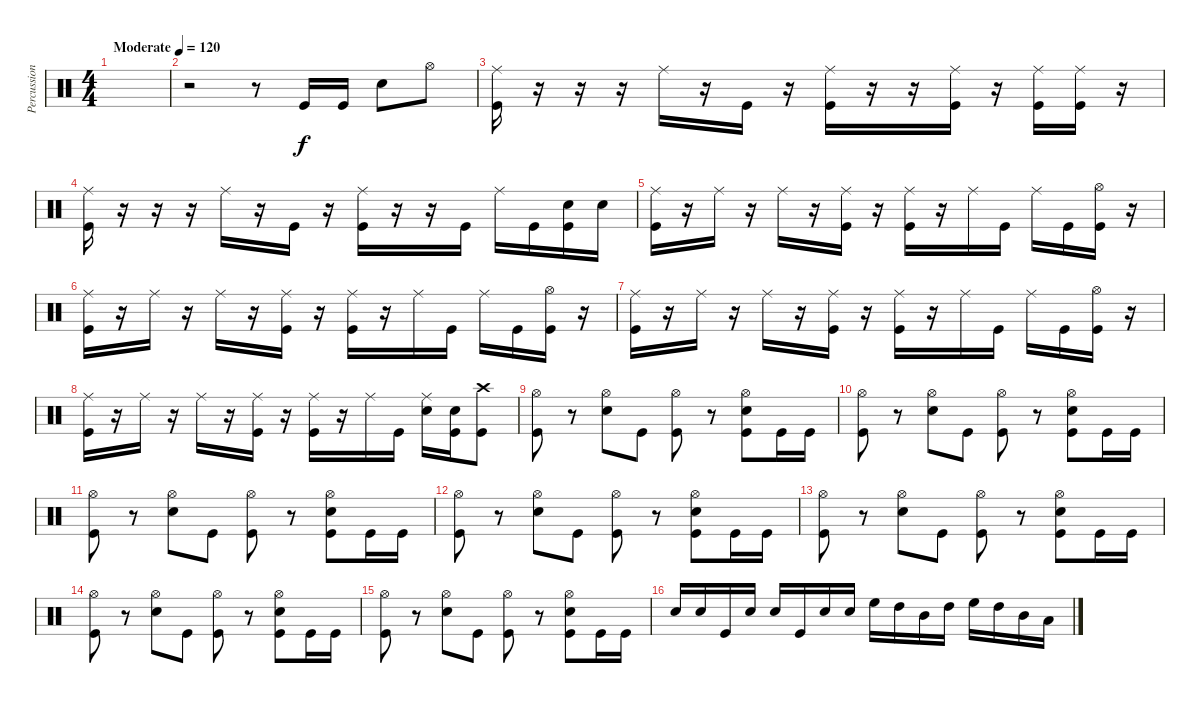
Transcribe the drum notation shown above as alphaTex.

\track ("Percussion" "Percussion") {instrument percussion}
\staff {score}
\articulation defaults
\ts (4 4)
\tempo (120 "Moderate")
\clef neutral
\ks c
|
r.2 r.8 "Kick (hit)".16 "Kick (hit)".16 "Snare (hit) 2".8 "Hi-Hat (open)".8 |
("Kick (hit)" "Ride (middle)").16 r.16 r.16 r.16 "Ride (middle)".16 r.16 "Kick (hit)".16 r.16 ("Kick (hit)" "Ride (middle)").16 r.16 r.16 ("Kick (hit)" "Ride (middle)").16 r.16 ("Kick (hit)" "Ride (middle)").16 ("Kick (hit)" "Ride (middle)").16 r.16 |
("Kick (hit)" "Ride (middle)").16 r.16 r.16 r.16 "Ride (middle)".16 r.16 "Kick (hit)".16 r.16 ("Kick (hit)" "Ride (middle)").16 r.16 r.16 "Kick (hit)".16 "Ride (middle)".16 "Kick (hit)".16 ("Kick (hit)" "Snare (hit) 2").16 "Snare (hit) 2".16 |
("Kick (hit)" "Ride (middle)").16 r.16 "Ride (middle)".16 r.16 "Ride (middle)".16 r.16 ("Kick (hit)" "Ride (middle)").16 r.16 ("Kick (hit)" "Ride (middle)").16 r.16 "Ride (middle)".16 "Kick (hit)".16 "Ride (middle)".16 "Kick (hit)".16 ("Kick (hit)" "Hi-Hat (open)").16 r.16 |
("Kick (hit)" "Ride (middle)").16 r.16 "Ride (middle)".16 r.16 "Ride (middle)".16 r.16 ("Kick (hit)" "Ride (middle)").16 r.16 ("Kick (hit)" "Ride (middle)").16 r.16 "Ride (middle)".16 "Kick (hit)".16 "Ride (middle)".16 "Kick (hit)".16 ("Kick (hit)" "Hi-Hat (open)").16 r.16 |
("Kick (hit)" "Ride (middle)").16 r.16 "Ride (middle)".16 r.16 "Ride (middle)".16 r.16 ("Kick (hit)" "Ride (middle)").16 r.16 ("Kick (hit)" "Ride (middle)").16 r.16 "Ride (middle)".16 "Kick (hit)".16 "Ride (middle)".16 "Kick (hit)".16 ("Kick (hit)" "Hi-Hat (open)").16 r.16 |
("Kick (hit)" "Ride (middle)").16 r.16 "Ride (middle)".16 r.16 "Ride (middle)".16 r.16 ("Kick (hit)" "Ride (middle)").16 r.16 ("Kick (hit)" "Ride (middle)").16 r.16 "Ride (middle)".16 "Kick (hit)".16 ("Ride (middle)" "Snare (hit) 2").16 ("Kick (hit)" "Snare (hit) 2").16 ("Kick (hit)" "Crash high (hit)").8 |
("Kick (hit)" "Hi-Hat (open)").8 r.8 ("Hi-Hat (open)" "Snare (hit) 2").8 "Kick (hit)".8 ("Kick (hit)" "Hi-Hat (open)").8 r.8 ("Kick (hit)" "Hi-Hat (open)" "Snare (hit) 2").8 "Kick (hit)".16 "Kick (hit)".16 |
("Kick (hit)" "Hi-Hat (open)").8 r.8 ("Hi-Hat (open)" "Snare (hit) 2").8 "Kick (hit)".8 ("Kick (hit)" "Hi-Hat (open)").8 r.8 ("Kick (hit)" "Hi-Hat (open)" "Snare (hit) 2").8 "Kick (hit)".16 "Kick (hit)".16 |
("Kick (hit)" "Hi-Hat (open)").8 r.8 ("Hi-Hat (open)" "Snare (hit) 2").8 "Kick (hit)".8 ("Kick (hit)" "Hi-Hat (open)").8 r.8 ("Kick (hit)" "Hi-Hat (open)" "Snare (hit) 2").8 "Kick (hit)".16 "Kick (hit)".16 |
("Kick (hit)" "Hi-Hat (open)").8 r.8 ("Hi-Hat (open)" "Snare (hit) 2").8 "Kick (hit)".8 ("Kick (hit)" "Hi-Hat (open)").8 r.8 ("Kick (hit)" "Hi-Hat (open)" "Snare (hit) 2").8 "Kick (hit)".16 "Kick (hit)".16 |
("Kick (hit)" "Hi-Hat (open)").8 r.8 ("Hi-Hat (open)" "Snare (hit) 2").8 "Kick (hit)".8 ("Kick (hit)" "Hi-Hat (open)").8 r.8 ("Kick (hit)" "Hi-Hat (open)" "Snare (hit) 2").8 "Kick (hit)".16 "Kick (hit)".16 |
("Kick (hit)" "Hi-Hat (open)").8 r.8 ("Hi-Hat (open)" "Snare (hit) 2").8 "Kick (hit)".8 ("Kick (hit)" "Hi-Hat (open)").8 r.8 ("Kick (hit)" "Hi-Hat (open)" "Snare (hit) 2").8 "Kick (hit)".16 "Kick (hit)".16 |
("Kick (hit)" "Hi-Hat (open)").8 r.8 ("Hi-Hat (open)" "Snare (hit) 2").8 "Kick (hit)".8 ("Kick (hit)" "Hi-Hat (open)").8 r.8 ("Kick (hit)" "Hi-Hat (open)" "Snare (hit) 2").8 "Kick (hit)".16 "Kick (hit)".16 |
"Snare (hit) 2".16 "Snare (hit) 2".16 "Kick (hit)".16 "Snare (hit) 2".16 "Snare (hit) 2".16 "Kick (hit)".16 "Snare (hit) 2".16 "Snare (hit) 2".16 "High Floor Tom (hit)".16 "High Tom (hit)".16 "Mid Tom (hit)".16 "High Tom (hit)".16 "High Floor Tom (hit)".16 "High Tom (hit)".16 "Mid Tom (hit)".16 "Low Tom (hit)".16
